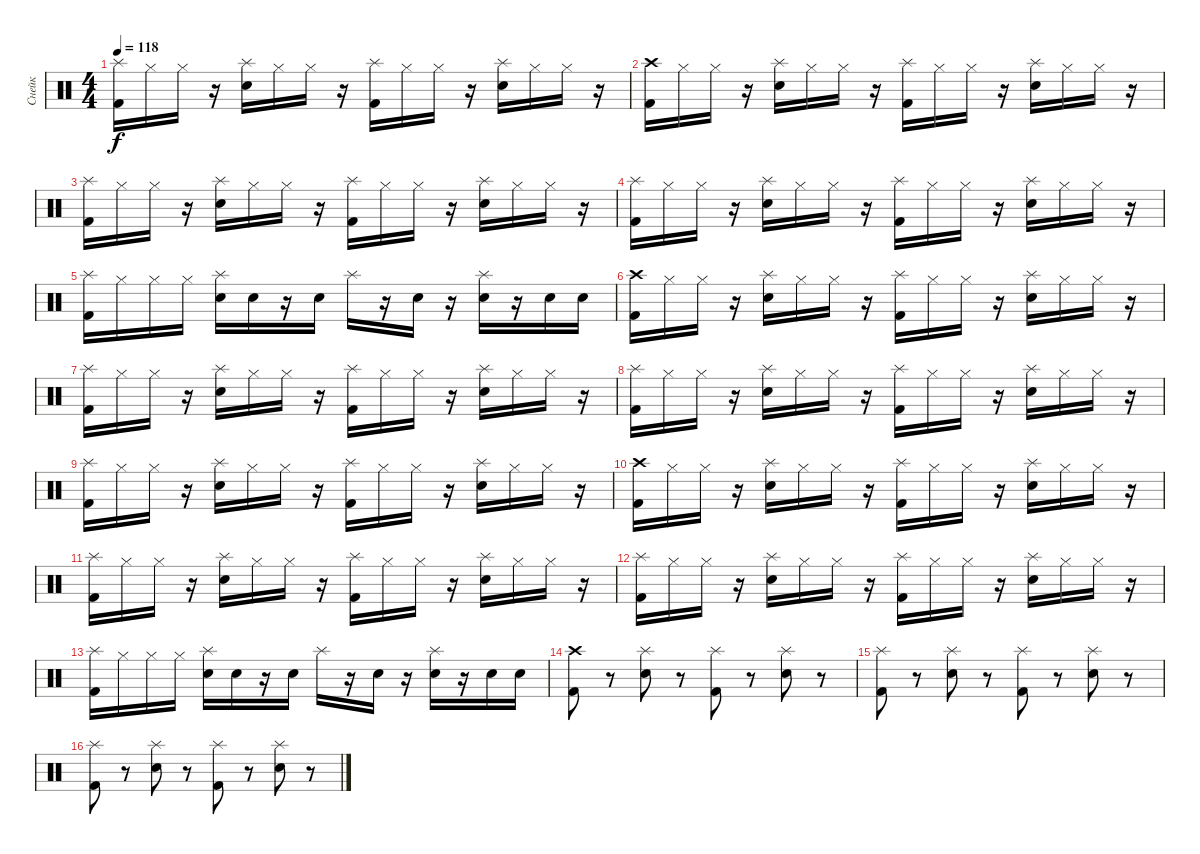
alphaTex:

\track ("Снейк" "Снейк") {instrument percussion}
\staff {score}
\articulation defaults
\ts (4 4)
\tempo 118
\clef neutral
\ks c
("Splash (hit)" "Kick (hit) 2").16{dy f} "Hi-Hat (closed)".16 "Hi-Hat (closed)".16 r.16 ("Splash (hit)" "Electric Snare (hit)").16 "Hi-Hat (closed)".16 "Hi-Hat (closed)".16 r.16 ("Splash (hit)" "Kick (hit) 2").16 "Hi-Hat (closed)".16 "Hi-Hat (closed)".16 r.16 ("Splash (hit)" "Electric Snare (hit)").16 "Hi-Hat (closed)".16 "Hi-Hat (closed)".16 r.16 |
("Crash high (hit)" "Kick (hit) 2").16 "Hi-Hat (closed)".16 "Hi-Hat (closed)".16 r.16 ("Splash (hit)" "Electric Snare (hit)").16 "Hi-Hat (closed)".16 "Hi-Hat (closed)".16 r.16 ("Splash (hit)" "Kick (hit) 2").16 "Hi-Hat (closed)".16 "Hi-Hat (closed)".16 r.16 ("Splash (hit)" "Electric Snare (hit)").16 "Hi-Hat (closed)".16 "Hi-Hat (closed)".16 r.16 |
("Splash (hit)" "Kick (hit) 2").16 "Hi-Hat (closed)".16 "Hi-Hat (closed)".16 r.16 ("Splash (hit)" "Electric Snare (hit)").16 "Hi-Hat (closed)".16 "Hi-Hat (closed)".16 r.16 ("Splash (hit)" "Kick (hit) 2").16 "Hi-Hat (closed)".16 "Hi-Hat (closed)".16 r.16 ("Splash (hit)" "Electric Snare (hit)").16 "Hi-Hat (closed)".16 "Hi-Hat (closed)".16 r.16 |
("Splash (hit)" "Kick (hit) 2").16 "Hi-Hat (closed)".16 "Hi-Hat (closed)".16 r.16 ("Splash (hit)" "Electric Snare (hit)").16 "Hi-Hat (closed)".16 "Hi-Hat (closed)".16 r.16 ("Splash (hit)" "Kick (hit) 2").16 "Hi-Hat (closed)".16 "Hi-Hat (closed)".16 r.16 ("Splash (hit)" "Electric Snare (hit)").16 "Hi-Hat (closed)".16 "Hi-Hat (closed)".16 r.16 |
("Splash (hit)" "Kick (hit) 2").16 "Hi-Hat (closed)".16 "Hi-Hat (closed)".16 "Hi-Hat (closed)".16 ("Splash (hit)" "Electric Snare (hit)").16 "Electric Snare (hit)".16 r.16 "Electric Snare (hit)".16 "Splash (hit)".16 r.16 "Electric Snare (hit)".16 r.16 ("Splash (hit)" "Electric Snare (hit)").16 r.16 "Electric Snare (hit)".16 "Electric Snare (hit)".16 |
("Crash high (hit)" "Kick (hit) 2").16 "Hi-Hat (closed)".16 "Hi-Hat (closed)".16 r.16 ("Splash (hit)" "Electric Snare (hit)").16 "Hi-Hat (closed)".16 "Hi-Hat (closed)".16 r.16 ("Splash (hit)" "Kick (hit) 2").16 "Hi-Hat (closed)".16 "Hi-Hat (closed)".16 r.16 ("Splash (hit)" "Electric Snare (hit)").16 "Hi-Hat (closed)".16 "Hi-Hat (closed)".16 r.16 |
("Splash (hit)" "Kick (hit) 2").16 "Hi-Hat (closed)".16 "Hi-Hat (closed)".16 r.16 ("Splash (hit)" "Electric Snare (hit)").16 "Hi-Hat (closed)".16 "Hi-Hat (closed)".16 r.16 ("Splash (hit)" "Kick (hit) 2").16 "Hi-Hat (closed)".16 "Hi-Hat (closed)".16 r.16 ("Splash (hit)" "Electric Snare (hit)").16 "Hi-Hat (closed)".16 "Hi-Hat (closed)".16 r.16 |
("Splash (hit)" "Kick (hit) 2").16 "Hi-Hat (closed)".16 "Hi-Hat (closed)".16 r.16 ("Splash (hit)" "Electric Snare (hit)").16 "Hi-Hat (closed)".16 "Hi-Hat (closed)".16 r.16 ("Splash (hit)" "Kick (hit) 2").16 "Hi-Hat (closed)".16 "Hi-Hat (closed)".16 r.16 ("Splash (hit)" "Electric Snare (hit)").16 "Hi-Hat (closed)".16 "Hi-Hat (closed)".16 r.16 |
("Splash (hit)" "Kick (hit) 2").16 "Hi-Hat (closed)".16 "Hi-Hat (closed)".16 r.16 ("Splash (hit)" "Electric Snare (hit)").16 "Hi-Hat (closed)".16 "Hi-Hat (closed)".16 r.16 ("Splash (hit)" "Kick (hit) 2").16 "Hi-Hat (closed)".16 "Hi-Hat (closed)".16 r.16 ("Splash (hit)" "Electric Snare (hit)").16 "Hi-Hat (closed)".16 "Hi-Hat (closed)".16 r.16 |
("Crash high (hit)" "Kick (hit) 2").16 "Hi-Hat (closed)".16 "Hi-Hat (closed)".16 r.16 ("Splash (hit)" "Electric Snare (hit)").16 "Hi-Hat (closed)".16 "Hi-Hat (closed)".16 r.16 ("Splash (hit)" "Kick (hit) 2").16 "Hi-Hat (closed)".16 "Hi-Hat (closed)".16 r.16 ("Splash (hit)" "Electric Snare (hit)").16 "Hi-Hat (closed)".16 "Hi-Hat (closed)".16 r.16 |
("Splash (hit)" "Kick (hit) 2").16 "Hi-Hat (closed)".16 "Hi-Hat (closed)".16 r.16 ("Splash (hit)" "Electric Snare (hit)").16 "Hi-Hat (closed)".16 "Hi-Hat (closed)".16 r.16 ("Splash (hit)" "Kick (hit) 2").16 "Hi-Hat (closed)".16 "Hi-Hat (closed)".16 r.16 ("Splash (hit)" "Electric Snare (hit)").16 "Hi-Hat (closed)".16 "Hi-Hat (closed)".16 r.16 |
("Splash (hit)" "Kick (hit) 2").16 "Hi-Hat (closed)".16 "Hi-Hat (closed)".16 r.16 ("Splash (hit)" "Electric Snare (hit)").16 "Hi-Hat (closed)".16 "Hi-Hat (closed)".16 r.16 ("Splash (hit)" "Kick (hit) 2").16 "Hi-Hat (closed)".16 "Hi-Hat (closed)".16 r.16 ("Splash (hit)" "Electric Snare (hit)").16 "Hi-Hat (closed)".16 "Hi-Hat (closed)".16 r.16 |
("Splash (hit)" "Kick (hit) 2").16 "Hi-Hat (closed)".16 "Hi-Hat (closed)".16 "Hi-Hat (closed)".16 ("Splash (hit)" "Electric Snare (hit)").16 "Electric Snare (hit)".16 r.16 "Electric Snare (hit)".16 "Splash (hit)".16 r.16 "Electric Snare (hit)".16 r.16 ("Splash (hit)" "Electric Snare (hit)").16 r.16 "Electric Snare (hit)".16 "Electric Snare (hit)".16 |
("Crash high (hit)" "Kick (hit) 2").8 r.8 ("Splash (hit)" "Electric Snare (hit)").8 r.8 ("Splash (hit)" "Kick (hit) 2").8 r.8 ("Splash (hit)" "Electric Snare (hit)").8 r.8 |
("Splash (hit)" "Kick (hit) 2").8 r.8 ("Splash (hit)" "Electric Snare (hit)").8 r.8 ("Splash (hit)" "Kick (hit) 2").8 r.8 ("Splash (hit)" "Electric Snare (hit)").8 r.8 |
("Splash (hit)" "Kick (hit) 2").8 r.8 ("Splash (hit)" "Electric Snare (hit)").8 r.8 ("Splash (hit)" "Kick (hit) 2").8 r.8 ("Splash (hit)" "Electric Snare (hit)").8 r.8
